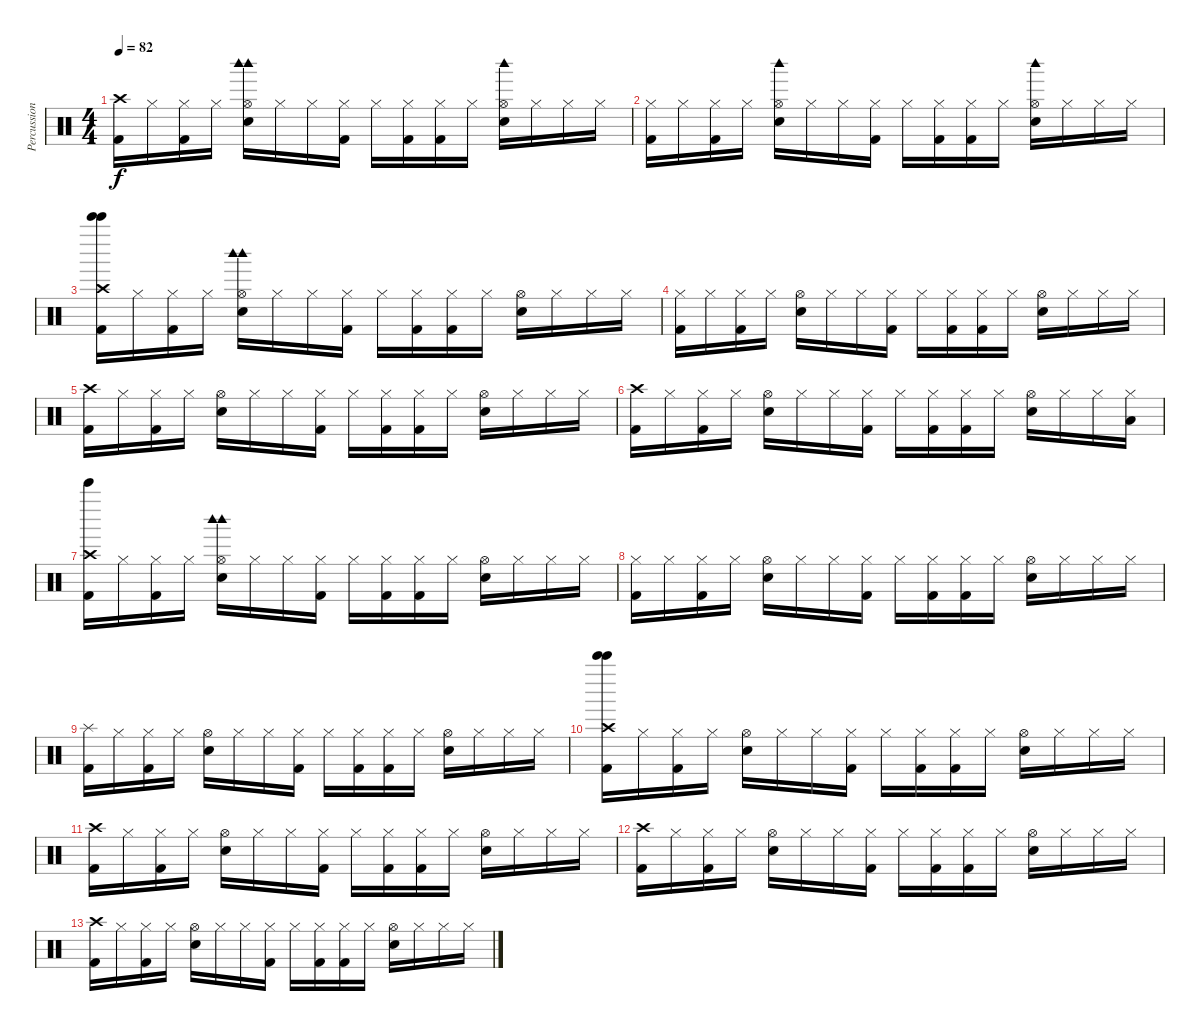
\track ("Percussion" "Percussion") {instrument percussion}
\staff {score}
\articulation defaults
\ts (4 4)
\tempo 82
\clef neutral
\ks c
("Crash high (hit)" "Kick (hit) 2").16{dy f} "Hi-Hat (closed)".16 ("Hi-Hat (closed)" "Kick (hit) 2").16 "Hi-Hat (closed)".16 ("Hi-Hat (open)" "Snare (hit) 2" "Woodblock high (hit)" "Woodblock high (hit)").16 "Hi-Hat (closed)".16 "Hi-Hat (closed)".16 ("Hi-Hat (closed)" "Kick (hit) 2").16 "Hi-Hat (closed)".16 ("Hi-Hat (closed)" "Kick (hit) 2").16 ("Hi-Hat (closed)" "Kick (hit) 2").16 "Hi-Hat (closed)".16 ("Hi-Hat (open)" "Snare (hit) 2" "Woodblock high (hit)").16 "Hi-Hat (closed)".16 "Hi-Hat (closed)".16 "Hi-Hat (closed)".16 |
("Hi-Hat (closed)" "Kick (hit) 2").16 "Hi-Hat (closed)".16 ("Hi-Hat (closed)" "Kick (hit) 2").16 "Hi-Hat (closed)".16 ("Hi-Hat (open)" "Snare (hit) 2" "Woodblock high (hit)").16 "Hi-Hat (closed)".16 "Hi-Hat (closed)".16 ("Hi-Hat (closed)" "Kick (hit) 2").16 "Hi-Hat (closed)".16 ("Hi-Hat (closed)" "Kick (hit) 2").16 ("Hi-Hat (closed)" "Kick (hit) 2").16 "Hi-Hat (closed)".16 ("Hi-Hat (open)" "Snare (hit) 2" "Woodblock high (hit)").16 "Hi-Hat (closed)".16 "Hi-Hat (closed)".16 "Hi-Hat (closed)".16 |
("Crash high (hit)" "Bell Tree (hit)" "Bell Tree (hit)" "Kick (hit) 2").16 "Hi-Hat (closed)".16 ("Hi-Hat (closed)" "Kick (hit) 2").16 "Hi-Hat (closed)".16 ("Hi-Hat (open)" "Snare (hit) 2" "Woodblock high (hit)" "Woodblock high (hit)").16 "Hi-Hat (closed)".16 "Hi-Hat (closed)".16 ("Hi-Hat (closed)" "Kick (hit) 2").16 "Hi-Hat (closed)".16 ("Hi-Hat (closed)" "Kick (hit) 2").16 ("Hi-Hat (closed)" "Kick (hit) 2").16 "Hi-Hat (closed)".16 ("Hi-Hat (open)" "Snare (hit) 2").16 "Hi-Hat (closed)".16 "Hi-Hat (closed)".16 "Hi-Hat (closed)".16 |
("Hi-Hat (closed)" "Kick (hit) 2").16 "Hi-Hat (closed)".16 ("Hi-Hat (closed)" "Kick (hit) 2").16 "Hi-Hat (closed)".16 ("Hi-Hat (open)" "Snare (hit) 2").16 "Hi-Hat (closed)".16 "Hi-Hat (closed)".16 ("Hi-Hat (closed)" "Kick (hit) 2").16 "Hi-Hat (closed)".16 ("Hi-Hat (closed)" "Kick (hit) 2").16 ("Hi-Hat (closed)" "Kick (hit) 2").16 "Hi-Hat (closed)".16 ("Hi-Hat (open)" "Snare (hit) 2").16 "Hi-Hat (closed)".16 "Hi-Hat (closed)".16 "Hi-Hat (closed)".16 |
("Crash high (hit)" "Kick (hit) 2").16 "Hi-Hat (closed)".16 ("Hi-Hat (closed)" "Kick (hit) 2").16 "Hi-Hat (closed)".16 ("Hi-Hat (open)" "Snare (hit) 2").16 "Hi-Hat (closed)".16 "Hi-Hat (closed)".16 ("Hi-Hat (closed)" "Kick (hit) 2").16 "Hi-Hat (closed)".16 ("Hi-Hat (closed)" "Kick (hit) 2").16 ("Hi-Hat (closed)" "Kick (hit) 2").16 "Hi-Hat (closed)".16 ("Hi-Hat (open)" "Snare (hit) 2").16 "Hi-Hat (closed)".16 "Hi-Hat (closed)".16 "Hi-Hat (closed)".16 |
("Crash high (hit)" "Kick (hit) 2").16 "Hi-Hat (closed)".16 ("Hi-Hat (closed)" "Kick (hit) 2").16 "Hi-Hat (closed)".16 ("Hi-Hat (open)" "Snare (hit) 2").16 "Hi-Hat (closed)".16 "Hi-Hat (closed)".16 ("Hi-Hat (closed)" "Kick (hit) 2").16 "Hi-Hat (closed)".16 ("Hi-Hat (closed)" "Kick (hit) 2").16 ("Hi-Hat (closed)" "Kick (hit) 2").16 "Hi-Hat (closed)".16 ("Hi-Hat (open)" "Snare (hit) 2").16 "Hi-Hat (closed)".16 "Hi-Hat (closed)".16 ("Hi-Hat (closed)" "Low Tom (hit)").16 |
("Crash high (hit)" "Bell Tree (hit)" "Kick (hit) 2").16{volume 9} "Hi-Hat (closed)".16 ("Hi-Hat (closed)" "Kick (hit) 2").16 "Hi-Hat (closed)".16 ("Hi-Hat (open)" "Snare (hit) 2" "Woodblock high (hit)" "Woodblock high (hit)").16 "Hi-Hat (closed)".16 "Hi-Hat (closed)".16 ("Hi-Hat (closed)" "Kick (hit) 2").16 "Hi-Hat (closed)".16 ("Hi-Hat (closed)" "Kick (hit) 2").16 ("Hi-Hat (closed)" "Kick (hit) 2").16 "Hi-Hat (closed)".16 ("Hi-Hat (open)" "Snare (hit) 2").16 "Hi-Hat (closed)".16 "Hi-Hat (closed)".16 "Hi-Hat (closed)".16 |
("Hi-Hat (closed)" "Kick (hit) 2").16 "Hi-Hat (closed)".16 ("Hi-Hat (closed)" "Kick (hit) 2").16 "Hi-Hat (closed)".16 ("Hi-Hat (open)" "Snare (hit) 2").16 "Hi-Hat (closed)".16 "Hi-Hat (closed)".16 ("Hi-Hat (closed)" "Kick (hit) 2").16 "Hi-Hat (closed)".16 ("Hi-Hat (closed)" "Kick (hit) 2").16 ("Hi-Hat (closed)" "Kick (hit) 2").16 "Hi-Hat (closed)".16 ("Hi-Hat (open)" "Snare (hit) 2").16 "Hi-Hat (closed)".16 "Hi-Hat (closed)".16 "Hi-Hat (closed)".16 |
("Splash (hit)" "Kick (hit) 2").16 "Hi-Hat (closed)".16 ("Hi-Hat (closed)" "Kick (hit) 2").16 "Hi-Hat (closed)".16 ("Hi-Hat (open)" "Snare (hit) 2").16 "Hi-Hat (closed)".16 "Hi-Hat (closed)".16 ("Hi-Hat (closed)" "Kick (hit) 2").16 "Hi-Hat (closed)".16 ("Hi-Hat (closed)" "Kick (hit) 2").16 ("Hi-Hat (closed)" "Kick (hit) 2").16 "Hi-Hat (closed)".16 ("Hi-Hat (open)" "Snare (hit) 2").16 "Hi-Hat (closed)".16 "Hi-Hat (closed)".16 "Hi-Hat (closed)".16 |
("Crash high (hit)" "Bell Tree (hit)" "Bell Tree (hit)" "Kick (hit) 2").16 "Hi-Hat (closed)".16 ("Hi-Hat (closed)" "Kick (hit) 2").16 "Hi-Hat (closed)".16 ("Hi-Hat (open)" "Snare (hit) 2").16 "Hi-Hat (closed)".16 "Hi-Hat (closed)".16 ("Hi-Hat (closed)" "Kick (hit) 2").16 "Hi-Hat (closed)".16 ("Hi-Hat (closed)" "Kick (hit) 2").16 ("Hi-Hat (closed)" "Kick (hit) 2").16 "Hi-Hat (closed)".16 ("Hi-Hat (open)" "Snare (hit) 2").16 "Hi-Hat (closed)".16 "Hi-Hat (closed)".16 "Hi-Hat (closed)".16 |
("Crash high (hit)" "Kick (hit) 2").16 "Hi-Hat (closed)".16 ("Hi-Hat (closed)" "Kick (hit) 2").16 "Hi-Hat (closed)".16 ("Hi-Hat (open)" "Snare (hit) 2").16 "Hi-Hat (closed)".16 "Hi-Hat (closed)".16 ("Hi-Hat (closed)" "Kick (hit) 2").16 "Hi-Hat (closed)".16 ("Hi-Hat (closed)" "Kick (hit) 2").16 ("Hi-Hat (closed)" "Kick (hit) 2").16 "Hi-Hat (closed)".16 ("Hi-Hat (open)" "Snare (hit) 2").16 "Hi-Hat (closed)".16 "Hi-Hat (closed)".16 "Hi-Hat (closed)".16 |
("Crash high (hit)" "Kick (hit) 2").16 "Hi-Hat (closed)".16 ("Hi-Hat (closed)" "Kick (hit) 2").16 "Hi-Hat (closed)".16 ("Hi-Hat (open)" "Snare (hit) 2").16 "Hi-Hat (closed)".16 "Hi-Hat (closed)".16 ("Hi-Hat (closed)" "Kick (hit) 2").16 "Hi-Hat (closed)".16 ("Hi-Hat (closed)" "Kick (hit) 2").16 ("Hi-Hat (closed)" "Kick (hit) 2").16 "Hi-Hat (closed)".16 ("Hi-Hat (open)" "Snare (hit) 2").16 "Hi-Hat (closed)".16 "Hi-Hat (closed)".16 "Hi-Hat (closed)".16 |
("Crash high (hit)" "Kick (hit) 2").16 "Hi-Hat (closed)".16 ("Hi-Hat (closed)" "Kick (hit) 2").16 "Hi-Hat (closed)".16 ("Hi-Hat (open)" "Snare (hit) 2").16 "Hi-Hat (closed)".16 "Hi-Hat (closed)".16 ("Hi-Hat (closed)" "Kick (hit) 2").16 "Hi-Hat (closed)".16 ("Hi-Hat (closed)" "Kick (hit) 2").16 ("Hi-Hat (closed)" "Kick (hit) 2").16 "Hi-Hat (closed)".16 ("Hi-Hat (open)" "Snare (hit) 2").16 "Hi-Hat (closed)".16 "Hi-Hat (closed)".16 "Hi-Hat (closed)".16
